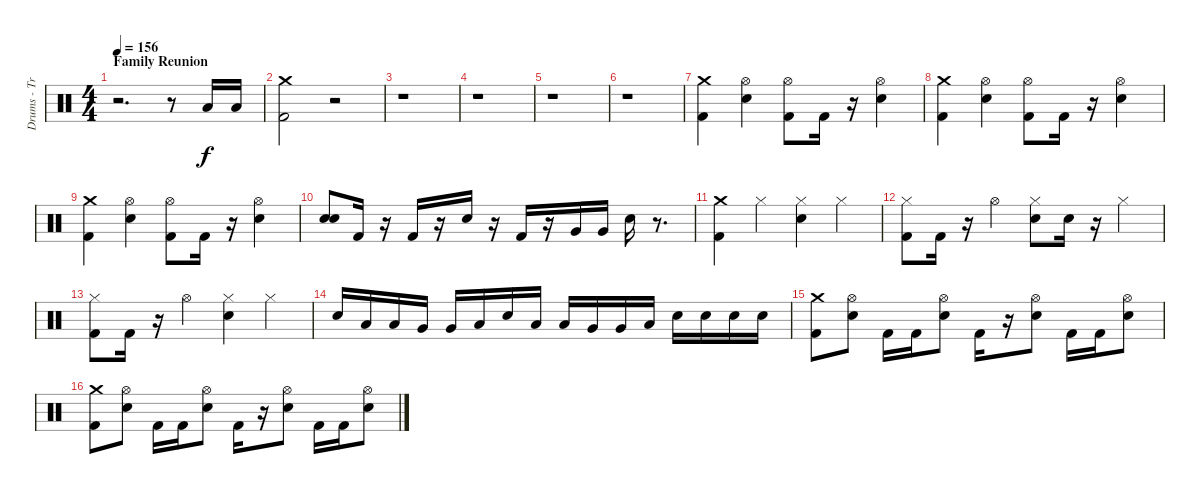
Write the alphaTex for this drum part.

\track ("Drums - Travis Barker" "Drums - Tr") {instrument percussion}
\staff {score}
\articulation defaults
\ts (4 4)
\section ("" "Family Reunion")
\tempo 156
\clef neutral
\ks c
r.2{d dy f} r.8 "Low Tom (hit)".16 "Low Tom (hit)".16 |
("Crash medium (hit)" "Kick (hit) 2").2 r.2 |
r.1 |
r.1 |
r.1 |
r.1 |
("Crash medium (hit)" "Kick (hit) 2").4 ("Hi-Hat (open)" "Electric Snare (hit)").4 ("Hi-Hat (open)" "Kick (hit) 2").8 "Kick (hit) 2".16 r.16 ("Hi-Hat (open)" "Electric Snare (hit)").4 |
("Crash medium (hit)" "Kick (hit) 2").4 ("Hi-Hat (open)" "Electric Snare (hit)").4 ("Hi-Hat (open)" "Kick (hit) 2").8 "Kick (hit) 2".16 r.16 ("Hi-Hat (open)" "Electric Snare (hit)").4 |
("Crash medium (hit)" "Kick (hit) 2").4 ("Hi-Hat (open)" "Electric Snare (hit)").4 ("Hi-Hat (open)" "Kick (hit) 2").8 "Kick (hit) 2".16 r.16 ("Hi-Hat (open)" "Electric Snare (hit)").4 |
("Electric Snare (hit)" "Electric Snare (hit)").8 "Kick (hit) 2".16 r.16 "Kick (hit) 2".16 r.16 "Electric Snare (hit)".16 r.16 "Kick (hit) 2".16 r.16 "Very Low Tom (hit)".16 "Very Low Tom (hit)".16 "Electric Snare (hit)".16 r.8{d} |
("Crash medium (hit)" "Kick (hit) 2").4 "Hi-Hat (closed)".4 ("Hi-Hat (closed)" "Electric Snare (hit)").4 "Hi-Hat (closed)".4 |
("Hi-Hat (closed)" "Kick (hit) 2").8 "Kick (hit) 2".16 r.16 "Hi-Hat (open)".4 ("Hi-Hat (closed)" "Electric Snare (hit)").8 "Electric Snare (hit)".16 r.16 "Hi-Hat (closed)".4 |
("Hi-Hat (closed)" "Kick (hit) 2").8 "Kick (hit) 2".16 r.16 "Hi-Hat (open)".4 ("Hi-Hat (closed)" "Electric Snare (hit)").4 "Hi-Hat (closed)".4 |
"Electric Snare (hit)".16 "Low Tom (hit)".16 "Low Tom (hit)".16 "Very Low Tom (hit)".16 "Very Low Tom (hit)".16 "Low Floor Tom (hit)".16 "Electric Snare (hit)".16 "Low Tom (hit)".16 "Low Tom (hit)".16 "Very Low Tom (hit)".16 "Very Low Tom (hit)".16 "Low Floor Tom (hit)".16 "Electric Snare (hit)".16 "Electric Snare (hit)".16 "Electric Snare (hit)".16 "Electric Snare (hit)".16 |
("Crash medium (hit)" "Kick (hit) 2").8 ("Hi-Hat (open)" "Electric Snare (hit)").8 "Kick (hit) 2".16 "Kick (hit) 2".16 ("Hi-Hat (open)" "Electric Snare (hit)").8 "Kick (hit) 2".16 r.16 ("Hi-Hat (open)" "Electric Snare (hit)").8 "Kick (hit) 2".16 "Kick (hit) 2".16 ("Hi-Hat (open)" "Electric Snare (hit)").8 |
("Crash medium (hit)" "Kick (hit) 2").8 ("Hi-Hat (open)" "Electric Snare (hit)").8 "Kick (hit) 2".16 "Kick (hit) 2".16 ("Hi-Hat (open)" "Electric Snare (hit)").8 "Kick (hit) 2".16 r.16 ("Hi-Hat (open)" "Electric Snare (hit)").8 "Kick (hit) 2".16 "Kick (hit) 2".16 ("Hi-Hat (open)" "Electric Snare (hit)").8
